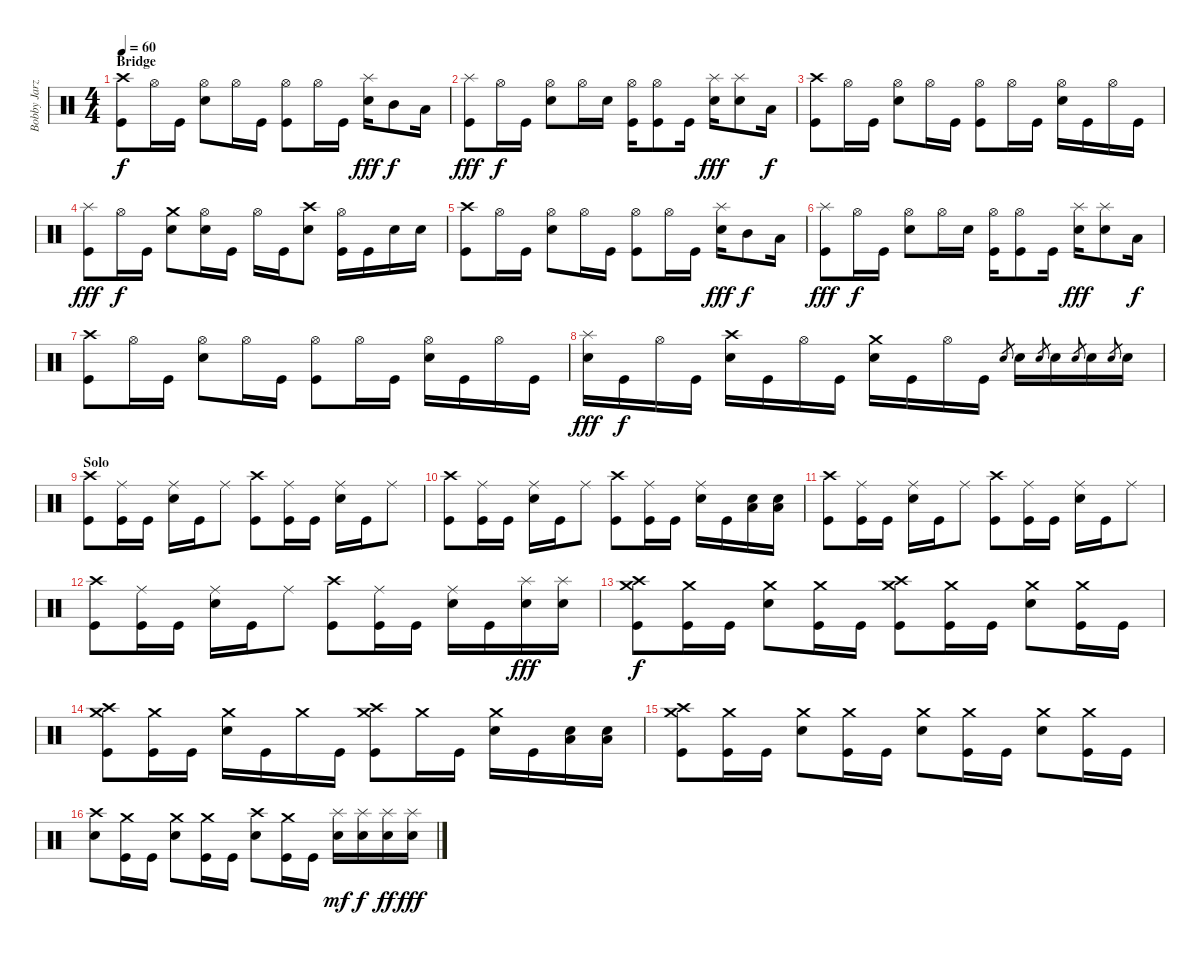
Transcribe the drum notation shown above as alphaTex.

\track ("Bobby Jarzombek" "Bobby Jarz") {instrument percussion}
\staff {score}
\articulation defaults
\ts (4 4)
\section ("" "Bridge")
\tempo 60
\clef neutral
\ks c
("Crash high (hit)" "Kick (hit)").8{dy f} "Hi-Hat (open)".16 "Kick (hit)".16 ("Hi-Hat (open)" "Electric Snare (hit)").8 "Hi-Hat (open)".16 "Kick (hit)".16 ("Hi-Hat (open)" "Kick (hit)").8 "Hi-Hat (open)".16 "Kick (hit)".16 ("Splash (hit)" "Electric Snare (hit)").16{dy fff} "Mid Tom (hit)".8{dy f} "Low Tom (hit)".16 |
("Splash (hit)" "Kick (hit)").8{dy fff} "Hi-Hat (open)".16{dy f} "Kick (hit)".16 ("Hi-Hat (open)" "Electric Snare (hit)").8 "Hi-Hat (open)".16 "Electric Snare (hit)".16 ("Hi-Hat (open)" "Kick (hit)").16 ("Hi-Hat (open)" "Kick (hit)").8 "Kick (hit)".16 ("Splash (hit)" "Electric Snare (hit)").16{dy fff} ("Splash (hit)" "Electric Snare (hit)").8 "Low Tom (hit)".16{dy f} |
("Crash high (hit)" "Kick (hit)").8 "Hi-Hat (open)".16 "Kick (hit)".16 ("Hi-Hat (open)" "Electric Snare (hit)").8 "Hi-Hat (open)".16 "Kick (hit)".16 ("Hi-Hat (open)" "Kick (hit)").8 "Hi-Hat (open)".16 "Kick (hit)".16 ("Hi-Hat (open)" "Electric Snare (hit)").16 "Kick (hit)".16 "Hi-Hat (open)".16 "Kick (hit)".16 |
("Splash (hit)" "Kick (hit)").8{dy fff} "Hi-Hat (open)".16{dy f} "Kick (hit)".16 ("Crash medium (hit)" "Electric Snare (hit)").8 ("Hi-Hat (open)" "Electric Snare (hit)").16 "Kick (hit)".16 "Hi-Hat (open)".16 "Kick (hit)".16 ("Crash high (hit)" "Electric Snare (hit)").8 ("Hi-Hat (open)" "Kick (hit)").16 "Kick (hit)".16 "Electric Snare (hit)".16 "Electric Snare (hit)".16 |
("Crash high (hit)" "Kick (hit)").8 "Hi-Hat (open)".16 "Kick (hit)".16 ("Hi-Hat (open)" "Electric Snare (hit)").8 "Hi-Hat (open)".16 "Kick (hit)".16 ("Hi-Hat (open)" "Kick (hit)").8 "Hi-Hat (open)".16 "Kick (hit)".16 ("Splash (hit)" "Electric Snare (hit)").16{dy fff} "Mid Tom (hit)".8{dy f} "Low Tom (hit)".16 |
("Splash (hit)" "Kick (hit)").8{dy fff} "Hi-Hat (open)".16{dy f} "Kick (hit)".16 ("Hi-Hat (open)" "Electric Snare (hit)").8 "Hi-Hat (open)".16 "Electric Snare (hit)".16 ("Hi-Hat (open)" "Kick (hit)").16 ("Hi-Hat (open)" "Kick (hit)").8 "Kick (hit)".16 ("Splash (hit)" "Electric Snare (hit)").16{dy fff} ("Splash (hit)" "Electric Snare (hit)").8 "Low Tom (hit)".16{dy f} |
("Crash high (hit)" "Kick (hit)").8 "Hi-Hat (open)".16 "Kick (hit)".16 ("Hi-Hat (open)" "Electric Snare (hit)").8 "Hi-Hat (open)".16 "Kick (hit)".16 ("Hi-Hat (open)" "Kick (hit)").8 "Hi-Hat (open)".16 "Kick (hit)".16 ("Hi-Hat (open)" "Electric Snare (hit)").16 "Kick (hit)".16 "Hi-Hat (open)".16 "Kick (hit)".16 |
("Splash (hit)" "Electric Snare (hit)").16{dy fff} "Kick (hit)".16{dy f} "Hi-Hat (open)".16 "Kick (hit)".16 ("Crash high (hit)" "Electric Snare (hit)").16 "Kick (hit)".16 "Hi-Hat (open)".16 "Kick (hit)".16 ("Crash medium (hit)" "Electric Snare (hit)").16 "Kick (hit)".16 "Hi-Hat (open)".16 "Kick (hit)".16 "Electric Snare (hit)".8{gr} "Electric Snare (hit)".16 "Electric Snare (hit)".8{gr} "Electric Snare (hit)".16 "Electric Snare (hit)".8{gr} "Electric Snare (hit)".16 "Electric Snare (hit)".8{gr} "Electric Snare (hit)".16 |
\section ("" "Solo")
("Crash high (hit)" "Kick (hit)").8 ("Ride (middle)" "Kick (hit)").16 "Kick (hit)".16 ("Ride (middle)" "Electric Snare (hit)").16 "Kick (hit)".16 "Ride (middle)".8 ("Crash high (hit)" "Kick (hit)").8 ("Ride (middle)" "Kick (hit)").16 "Kick (hit)".16 ("Ride (middle)" "Electric Snare (hit)").16 "Kick (hit)".16 "Ride (middle)".8 |
("Crash high (hit)" "Kick (hit)").8 ("Ride (middle)" "Kick (hit)").16 "Kick (hit)".16 ("Ride (middle)" "Electric Snare (hit)").16 "Kick (hit)".16 "Ride (middle)".8 ("Crash high (hit)" "Kick (hit)").8 ("Ride (middle)" "Kick (hit)").16 "Kick (hit)".16 ("Ride (middle)" "Electric Snare (hit)").16 "Kick (hit)".16 ("Low Tom (hit)" "Electric Snare (hit)").16 ("Low Tom (hit)" "Electric Snare (hit)").16 |
("Crash high (hit)" "Kick (hit)").8 ("Ride (middle)" "Kick (hit)").16 "Kick (hit)".16 ("Ride (middle)" "Electric Snare (hit)").16 "Kick (hit)".16 "Ride (middle)".8 ("Crash high (hit)" "Kick (hit)").8 ("Ride (middle)" "Kick (hit)").16 "Kick (hit)".16 ("Ride (middle)" "Electric Snare (hit)").16 "Kick (hit)".16 "Ride (middle)".8 |
("Crash high (hit)" "Kick (hit)").8 ("Ride (middle)" "Kick (hit)").16 "Kick (hit)".16 ("Ride (middle)" "Electric Snare (hit)").16 "Kick (hit)".16 "Ride (middle)".8 ("Crash high (hit)" "Kick (hit)").8 ("Ride (middle)" "Kick (hit)").16 "Kick (hit)".16 ("Ride (middle)" "Electric Snare (hit)").16 "Kick (hit)".16 ("Splash (hit)" "Electric Snare (hit)").16{dy fff} ("Splash (hit)" "Electric Snare (hit)").16 |
("Crash high (hit)" "Crash medium (hit)" "Kick (hit)").8{dy f} ("Crash medium (hit)" "Kick (hit)").16 "Kick (hit)".16 ("Crash medium (hit)" "Electric Snare (hit)").8 ("Crash medium (hit)" "Kick (hit)").16 "Kick (hit)".16 ("Crash medium (hit)" "Crash high (hit)" "Kick (hit)").8 ("Crash medium (hit)" "Kick (hit)").16 "Kick (hit)".16 ("Crash medium (hit)" "Electric Snare (hit)").8 ("Crash medium (hit)" "Kick (hit)").16 "Kick (hit)".16 |
("Crash high (hit)" "Crash medium (hit)" "Kick (hit)").8 ("Crash medium (hit)" "Kick (hit)").16 "Kick (hit)".16 ("Crash medium (hit)" "Electric Snare (hit)").16 "Kick (hit)".16 "Crash medium (hit)".16 "Kick (hit)".16 ("Crash medium (hit)" "Crash high (hit)" "Kick (hit)").8 "Crash medium (hit)".16 "Kick (hit)".16 ("Crash medium (hit)" "Electric Snare (hit)").16 "Kick (hit)".16 ("Low Tom (hit)" "Electric Snare (hit)").16 ("Low Tom (hit)" "Electric Snare (hit)").16 |
("Crash high (hit)" "Crash medium (hit)" "Kick (hit)").8 ("Crash medium (hit)" "Kick (hit)").16 "Kick (hit)".16 ("Crash medium (hit)" "Electric Snare (hit)").8 ("Crash medium (hit)" "Kick (hit)").16 "Kick (hit)".16 ("Crash medium (hit)" "Electric Snare (hit)").8 ("Crash medium (hit)" "Kick (hit)").16 "Kick (hit)".16 ("Crash medium (hit)" "Electric Snare (hit)").8 ("Crash medium (hit)" "Kick (hit)").16 "Kick (hit)".16 |
("Crash high (hit)" "Electric Snare (hit)").8 ("Crash medium (hit)" "Kick (hit)").16 "Kick (hit)".16 ("Crash medium (hit)" "Electric Snare (hit)").8 ("Crash medium (hit)" "Kick (hit)").16 "Kick (hit)".16 ("Crash high (hit)" "Electric Snare (hit)").8 ("Crash medium (hit)" "Kick (hit)").16 "Kick (hit)".16 ("Splash (hit)" "Electric Snare (hit)").16{dy mf} ("Splash (hit)" "Electric Snare (hit)").16{dy f} ("Splash (hit)" "Electric Snare (hit)").16{dy ff} ("Splash (hit)" "Electric Snare (hit)").16{dy fff}
